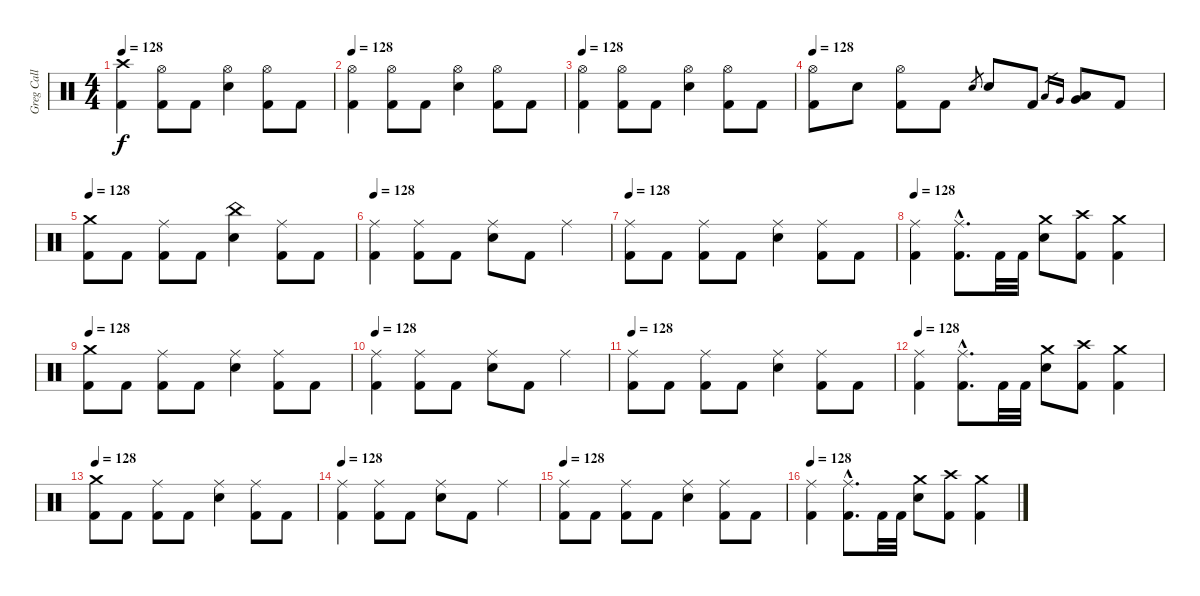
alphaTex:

\track ("Greg Call (Drums)" "Greg Call ") {instrument percussion}
\staff {score}
\articulation defaults
\ts (4 4)
\tempo 128
\clef neutral
\ks c
("Crash high (hit)" "Kick (hit) 2").4{dy f} ("Hi-Hat (open)" "Kick (hit) 2").8 "Kick (hit) 2".8 ("Hi-Hat (open)" "Snare (hit) 2").4 ("Hi-Hat (open)" "Kick (hit) 2").8 "Kick (hit) 2".8 |
\tempo 128
("Hi-Hat (open)" "Kick (hit) 2").4 ("Hi-Hat (open)" "Kick (hit) 2").8 "Kick (hit) 2".8 ("Hi-Hat (open)" "Snare (hit) 2").4 ("Hi-Hat (open)" "Kick (hit) 2").8 "Kick (hit) 2".8 |
\tempo 128
("Hi-Hat (open)" "Kick (hit) 2").4 ("Hi-Hat (open)" "Kick (hit) 2").8 "Kick (hit) 2".8 ("Hi-Hat (open)" "Snare (hit) 2").4 ("Hi-Hat (open)" "Kick (hit) 2").8 "Kick (hit) 2".8 |
\tempo 128
("Hi-Hat (open)" "Kick (hit) 2").8 "Snare (hit) 2".8 ("Kick (hit) 2" "Hi-Hat (open)").8 "Kick (hit) 2".8 "Snare (hit) 2".8{gr} "Snare (hit) 2".8 "Kick (hit) 2".8 "Low Floor Tom (hit)".16{gr} "Very Low Tom (hit)".16{gr} ("Low Floor Tom (hit)" "Very Low Tom (hit)").8 "Kick (hit) 2".8 |
\tempo 128
("Crash medium (hit)" "Kick (hit) 2").8 "Kick (hit) 2".8 ("Ride (middle)" "Kick (hit) 2").8 "Kick (hit) 2".8 ("China (hit)" "Snare (hit) 2").4 ("Ride (middle)" "Kick (hit) 2").8 "Kick (hit) 2".8 |
\tempo 128
("Ride (middle)" "Kick (hit) 2").4 ("Ride (middle)" "Kick (hit) 2").8 "Kick (hit) 2".8 ("Ride (middle)" "Snare (hit) 2").8 "Kick (hit) 2".8 "Ride (middle)".4 |
\tempo 128
("Ride (middle)" "Kick (hit) 2").8 "Kick (hit) 2".8 ("Ride (middle)" "Kick (hit) 2").8 "Kick (hit) 2".8 ("Ride (middle)" "Snare (hit) 2").4 ("Ride (middle)" "Kick (hit) 2").8 "Kick (hit) 2".8 |
\tempo 128
("Ride (middle)" "Kick (hit) 2").4 ("Ride (middle)"{hac} "Kick (hit) 2"{hac}).8{d} "Kick (hit) 2".32 "Kick (hit) 2".32 ("Crash medium (hit)" "Snare (hit) 2").8 ("Crash high (hit)" "Kick (hit) 2").8 ("Crash medium (hit)" "Kick (hit) 2").4 |
\tempo 128
("Crash medium (hit)" "Kick (hit) 2").8 "Kick (hit) 2".8 ("Ride (middle)" "Kick (hit) 2").8 "Kick (hit) 2".8 ("Ride (middle)" "Snare (hit) 2").4 ("Ride (middle)" "Kick (hit) 2").8 "Kick (hit) 2".8 |
\tempo 128
("Ride (middle)" "Kick (hit) 2").4 ("Ride (middle)" "Kick (hit) 2").8 "Kick (hit) 2".8 ("Ride (middle)" "Snare (hit) 2").8 "Kick (hit) 2".8 "Ride (middle)".4 |
\tempo 128
("Ride (middle)" "Kick (hit) 2").8 "Kick (hit) 2".8 ("Ride (middle)" "Kick (hit) 2").8 "Kick (hit) 2".8 ("Ride (middle)" "Snare (hit) 2").4 ("Ride (middle)" "Kick (hit) 2").8 "Kick (hit) 2".8 |
\tempo 128
("Ride (middle)" "Kick (hit) 2").4 ("Ride (middle)"{hac} "Kick (hit) 2"{hac}).8{d} "Kick (hit) 2".32 "Kick (hit) 2".32 ("Crash medium (hit)" "Snare (hit) 2").8 ("Crash high (hit)" "Kick (hit) 2").8 ("Crash medium (hit)" "Kick (hit) 2").4 |
\tempo 128
("Crash medium (hit)" "Kick (hit) 2").8 "Kick (hit) 2".8 ("Ride (middle)" "Kick (hit) 2").8 "Kick (hit) 2".8 ("Ride (middle)" "Snare (hit) 2").4 ("Ride (middle)" "Kick (hit) 2").8 "Kick (hit) 2".8 |
\tempo 128
("Ride (middle)" "Kick (hit) 2").4 ("Ride (middle)" "Kick (hit) 2").8 "Kick (hit) 2".8 ("Ride (middle)" "Snare (hit) 2").8 "Kick (hit) 2".8 "Ride (middle)".4 |
\tempo 128
("Ride (middle)" "Kick (hit) 2").8 "Kick (hit) 2".8 ("Ride (middle)" "Kick (hit) 2").8 "Kick (hit) 2".8 ("Ride (middle)" "Snare (hit) 2").4 ("Ride (middle)" "Kick (hit) 2").8 "Kick (hit) 2".8 |
\tempo 128
("Ride (middle)" "Kick (hit) 2").4 ("Ride (middle)"{hac} "Kick (hit) 2"{hac}).8{d} "Kick (hit) 2".32 "Kick (hit) 2".32 ("Crash medium (hit)" "Snare (hit) 2").8 ("Crash high (hit)" "Kick (hit) 2").8 ("Crash medium (hit)" "Kick (hit) 2").4
